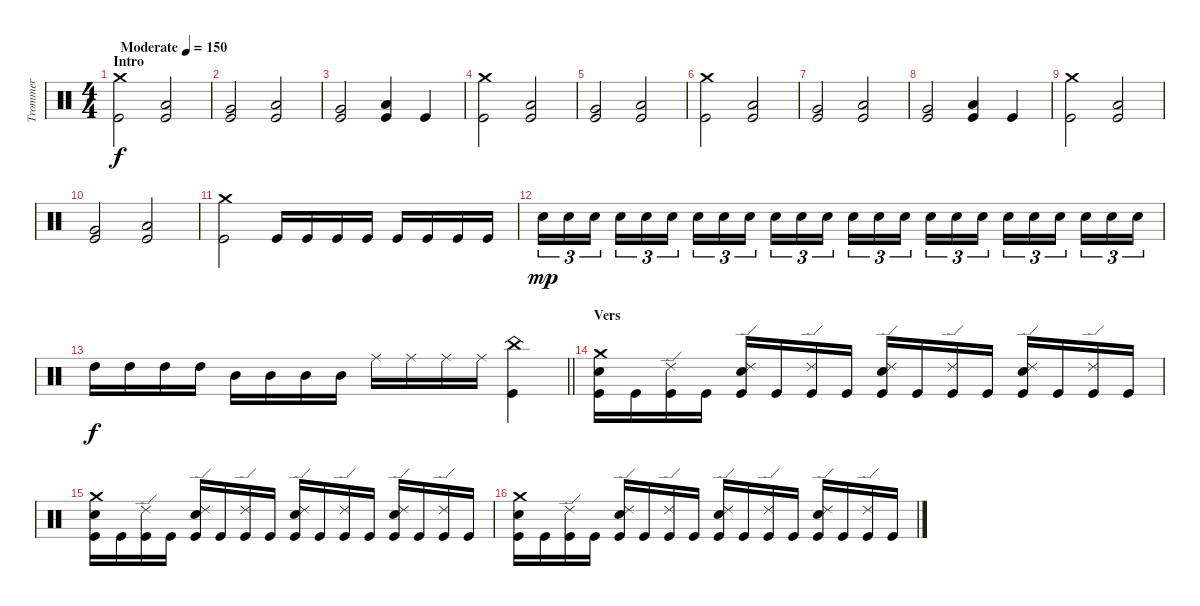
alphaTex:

\track ("Trommer" "Trommer") {instrument percussion}
\staff {score}
\articulation defaults
\ts (4 4)
\section ("" "Intro")
\tempo (150 "Moderate")
\clef neutral
\ks c
("Crash medium (hit)" "Kick (hit)").2{dy f} ("Low Floor Tom (hit)" "Kick (hit)").2 |
("Very Low Tom (hit)" "Kick (hit)").2 ("Low Floor Tom (hit)" "Kick (hit)").2 |
("Very Low Tom (hit)" "Kick (hit)").2 ("Low Floor Tom (hit)" "Kick (hit)").4 "Kick (hit)".4 |
("Crash medium (hit)" "Kick (hit)").2 ("Low Floor Tom (hit)" "Kick (hit)").2 |
("Very Low Tom (hit)" "Kick (hit)").2 ("Low Floor Tom (hit)" "Kick (hit)").2 |
("Crash medium (hit)" "Kick (hit)").2 ("Low Floor Tom (hit)" "Kick (hit)").2 |
("Very Low Tom (hit)" "Kick (hit)").2 ("Low Floor Tom (hit)" "Kick (hit)").2 |
("Very Low Tom (hit)" "Kick (hit)").2 ("Low Floor Tom (hit)" "Kick (hit)").4 "Kick (hit)".4 |
("Crash medium (hit)" "Kick (hit)").2 ("Low Floor Tom (hit)" "Kick (hit)").2 |
("Very Low Tom (hit)" "Kick (hit)").2 ("Low Floor Tom (hit)" "Kick (hit)").2 |
("Crash medium (hit)" "Kick (hit)").2 "Kick (hit)".16 "Kick (hit)".16 "Kick (hit)".16 "Kick (hit)".16 "Kick (hit)".16 "Kick (hit)".16 "Kick (hit)".16 "Kick (hit)".16 |
"Snare (hit) 2".16{tu (3 2) dy mp} "Snare (hit) 2".16{tu (3 2)} "Snare (hit) 2".16{tu (3 2) beam splitsecondary} "Snare (hit) 2".16{tu (3 2)} "Snare (hit) 2".16{tu (3 2)} "Snare (hit) 2".16{tu (3 2)} "Snare (hit) 2".16{tu (3 2)} "Snare (hit) 2".16{tu (3 2)} "Snare (hit) 2".16{tu (3 2) beam splitsecondary} "Snare (hit) 2".16{tu (3 2)} "Snare (hit) 2".16{tu (3 2)} "Snare (hit) 2".16{tu (3 2)} "Snare (hit) 2".16{tu (3 2)} "Snare (hit) 2".16{tu (3 2)} "Snare (hit) 2".16{tu (3 2) beam splitsecondary} "Snare (hit) 2".16{tu (3 2)} "Snare (hit) 2".16{tu (3 2)} "Snare (hit) 2".16{tu (3 2)} "Snare (hit) 2".16{tu (3 2)} "Snare (hit) 2".16{tu (3 2)} "Snare (hit) 2".16{tu (3 2) beam splitsecondary} "Snare (hit) 2".16{tu (3 2)} "Snare (hit) 2".16{tu (3 2)} "Snare (hit) 2".16{tu (3 2)} |
\barLineRight lightlight "High Tom (hit)".16{dy f} "High Tom (hit)".16 "High Tom (hit)".16 "High Tom (hit)".16 "Mid Tom (hit)".16 "Mid Tom (hit)".16 "Mid Tom (hit)".16 "Mid Tom (hit)".16 "Ride (middle)".16 "Ride (middle)".16 "Ride (middle)".16 "Ride (middle)".16
("China (hit)" "Kick (hit)").4 |
\section ("" "Vers")
("Crash medium (hit)" "Snare (hit) 2" "Kick (hit)").16 "Kick (hit)".16 ("Ride (edge) 2" "Kick (hit)").16 "Kick (hit)".16 ("Ride (edge) 2" "Snare (hit) 2" "Kick (hit)").16 "Kick (hit)".16 ("Ride (edge) 2" "Kick (hit)").16 "Kick (hit)".16 ("Ride (edge) 2" "Snare (hit) 2" "Kick (hit)").16 "Kick (hit)".16 ("Ride (edge) 2" "Kick (hit)").16 "Kick (hit)".16 ("Ride (edge) 2" "Snare (hit) 2" "Kick (hit)").16 "Kick (hit)".16 ("Ride (edge) 2" "Kick (hit)").16 "Kick (hit)".16 |
("Crash medium (hit)" "Snare (hit) 2" "Kick (hit)").16 "Kick (hit)".16 ("Ride (edge) 2" "Kick (hit)").16 "Kick (hit)".16 ("Ride (edge) 2" "Snare (hit) 2" "Kick (hit)").16 "Kick (hit)".16 ("Ride (edge) 2" "Kick (hit)").16 "Kick (hit)".16 ("Ride (edge) 2" "Snare (hit) 2" "Kick (hit)").16 "Kick (hit)".16 ("Ride (edge) 2" "Kick (hit)").16 "Kick (hit)".16 ("Ride (edge) 2" "Snare (hit) 2" "Kick (hit)").16 "Kick (hit)".16 ("Ride (edge) 2" "Kick (hit)").16 "Kick (hit)".16 |
("Crash medium (hit)" "Snare (hit) 2" "Kick (hit)").16 "Kick (hit)".16 ("Ride (edge) 2" "Kick (hit)").16 "Kick (hit)".16 ("Ride (edge) 2" "Snare (hit) 2" "Kick (hit)").16 "Kick (hit)".16 ("Ride (edge) 2" "Kick (hit)").16 "Kick (hit)".16 ("Ride (edge) 2" "Snare (hit) 2" "Kick (hit)").16 "Kick (hit)".16 ("Ride (edge) 2" "Kick (hit)").16 "Kick (hit)".16 ("Ride (edge) 2" "Snare (hit) 2" "Kick (hit)").16 "Kick (hit)".16 ("Ride (edge) 2" "Kick (hit)").16 "Kick (hit)".16
